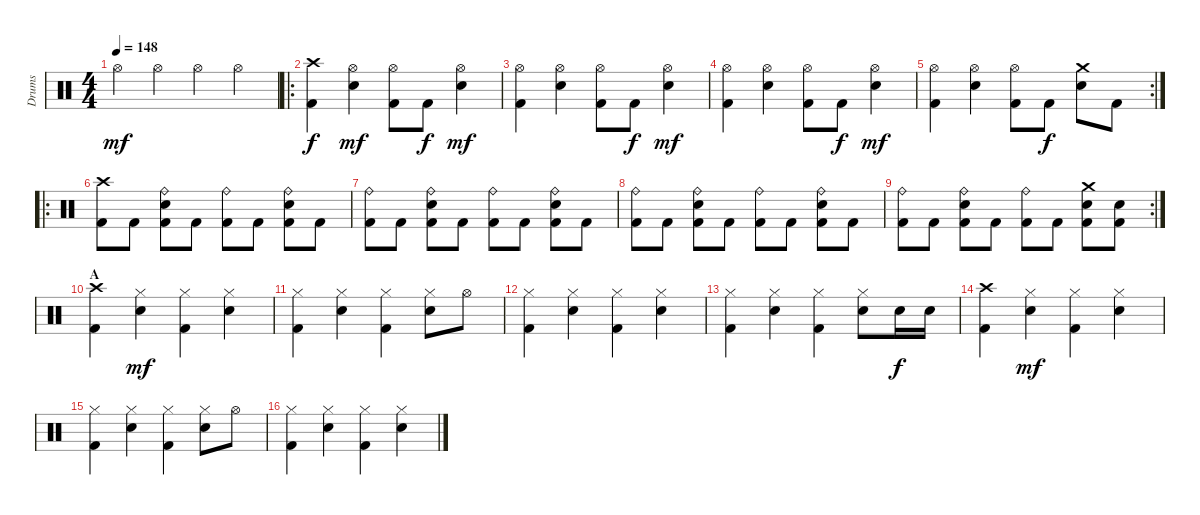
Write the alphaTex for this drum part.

\track ("Drums" "Drums") {instrument percussion}
\staff {score}
\articulation defaults
\ts (4 4)
\tempo 148
\clef neutral
\ks c "Hi-Hat (open)".4{dy mf} "Hi-Hat (open)".4 "Hi-Hat (open)".4 "Hi-Hat (open)".4
|
\ro
("Crash high (hit)" "Kick (hit) 2").4{dy f} ("Hi-Hat (open)" "Snare (hit) 2").4{dy mf} ("Hi-Hat (open)" "Kick (hit) 2").8 "Kick (hit) 2".8{dy f} ("Hi-Hat (open)" "Snare (hit) 2").4{dy mf} |
("Hi-Hat (open)" "Kick (hit) 2").4 ("Hi-Hat (open)" "Snare (hit) 2").4 ("Hi-Hat (open)" "Kick (hit) 2").8 "Kick (hit) 2".8{dy f} ("Hi-Hat (open)" "Snare (hit) 2").4{dy mf} |
("Hi-Hat (open)" "Kick (hit) 2").4 ("Hi-Hat (open)" "Snare (hit) 2").4 ("Hi-Hat (open)" "Kick (hit) 2").8 "Kick (hit) 2".8{dy f} ("Hi-Hat (open)" "Snare (hit) 2").4{dy mf} |
\rc 2
("Hi-Hat (open)" "Kick (hit) 2").4 ("Hi-Hat (open)" "Snare (hit) 2").4 ("Hi-Hat (open)" "Kick (hit) 2").8 "Kick (hit) 2".8{dy f} ("Crash medium (hit)" "Snare (hit) 2").8 "Kick (hit) 2".8 |
\ro
("Crash high (hit)" "Kick (hit) 2").8 "Kick (hit) 2".8 ("Ride (bell)" "Snare (hit) 2" "Kick (hit) 2").8 "Kick (hit) 2".8 ("Ride (bell)" "Kick (hit) 2").8 "Kick (hit) 2".8 ("Ride (bell)" "Snare (hit) 2" "Kick (hit) 2").8 "Kick (hit) 2".8 |
("Ride (bell)" "Kick (hit) 2").8 "Kick (hit) 2".8 ("Ride (bell)" "Snare (hit) 2" "Kick (hit) 2").8 "Kick (hit) 2".8 ("Ride (bell)" "Kick (hit) 2").8 "Kick (hit) 2".8 ("Ride (bell)" "Snare (hit) 2" "Kick (hit) 2").8 "Kick (hit) 2".8 |
("Ride (bell)" "Kick (hit) 2").8 "Kick (hit) 2".8 ("Ride (bell)" "Snare (hit) 2" "Kick (hit) 2").8 "Kick (hit) 2".8 ("Ride (bell)" "Kick (hit) 2").8 "Kick (hit) 2".8 ("Ride (bell)" "Snare (hit) 2" "Kick (hit) 2").8 "Kick (hit) 2".8 |
\rc 2
("Ride (bell)" "Kick (hit) 2").8 "Kick (hit) 2".8 ("Ride (bell)" "Snare (hit) 2" "Kick (hit) 2").8 "Kick (hit) 2".8 ("Ride (bell)" "Kick (hit) 2").8 "Kick (hit) 2".8 ("Crash medium (hit)" "Snare (hit) 2" "Kick (hit) 2").8 ("Snare (hit) 2" "Kick (hit) 2").8 |
\section ("" "A")
("Crash high (hit)" "Kick (hit) 2").4 ("Hi-Hat (closed)" "Snare (hit) 2").4{dy mf} ("Hi-Hat (closed)" "Kick (hit) 2").4 ("Hi-Hat (closed)" "Snare (hit) 2").4 |
("Hi-Hat (closed)" "Kick (hit) 2").4 ("Hi-Hat (closed)" "Snare (hit) 2").4 ("Hi-Hat (closed)" "Kick (hit) 2").4 ("Hi-Hat (closed)" "Snare (hit) 2").8 "Hi-Hat (open)".8 |
("Hi-Hat (closed)" "Kick (hit) 2").4 ("Hi-Hat (closed)" "Snare (hit) 2").4 ("Hi-Hat (closed)" "Kick (hit) 2").4 ("Hi-Hat (closed)" "Snare (hit) 2").4 |
("Hi-Hat (closed)" "Kick (hit) 2").4 ("Hi-Hat (closed)" "Snare (hit) 2").4 ("Hi-Hat (closed)" "Kick (hit) 2").4 ("Hi-Hat (closed)" "Snare (hit) 2").8 "Snare (hit) 2".16{dy f} "Snare (hit) 2".16 |
("Crash high (hit)" "Kick (hit) 2").4 ("Hi-Hat (closed)" "Snare (hit) 2").4{dy mf} ("Hi-Hat (closed)" "Kick (hit) 2").4 ("Hi-Hat (closed)" "Snare (hit) 2").4 |
("Hi-Hat (closed)" "Kick (hit) 2").4 ("Hi-Hat (closed)" "Snare (hit) 2").4 ("Hi-Hat (closed)" "Kick (hit) 2").4 ("Hi-Hat (closed)" "Snare (hit) 2").8 "Hi-Hat (open)".8 |
("Hi-Hat (closed)" "Kick (hit) 2").4 ("Hi-Hat (closed)" "Snare (hit) 2").4 ("Hi-Hat (closed)" "Kick (hit) 2").4 ("Hi-Hat (closed)" "Snare (hit) 2").4
